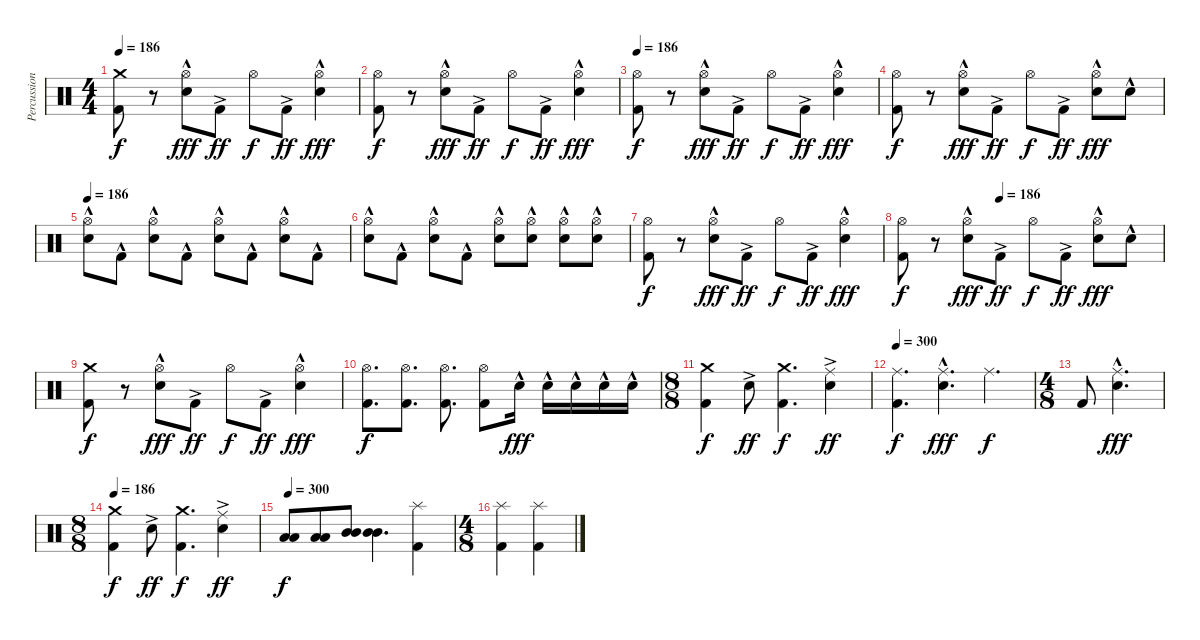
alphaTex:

\track ("Percussion" "Percussion") {instrument percussion}
\staff {score}
\articulation defaults
\ts (4 4)
\tempo 186
\clef neutral
\ks c
("Kick (hit) 2" "Crash medium (hit)").8{dy f} r.8 ("Electric Snare (hit)"{hac} "Hi-Hat (open)").8{dy fff} "Kick (hit) 2"{ac}.8{dy ff} "Hi-Hat (open)".8{dy f} "Kick (hit) 2"{ac}.8{dy ff} ("Electric Snare (hit)"{hac} "Hi-Hat (open)").4{dy fff} |
("Kick (hit) 2" "Hi-Hat (open)").8{dy f} r.8 ("Electric Snare (hit)"{hac} "Hi-Hat (open)").8{dy fff} "Kick (hit) 2"{ac}.8{dy ff} "Hi-Hat (open)".8{dy f} "Kick (hit) 2"{ac}.8{dy ff} ("Electric Snare (hit)"{hac} "Hi-Hat (open)").4{dy fff} |
\tempo 186
("Kick (hit) 2" "Hi-Hat (open)").8{dy f} r.8 ("Electric Snare (hit)"{hac} "Hi-Hat (open)").8{dy fff} "Kick (hit) 2"{ac}.8{dy ff} "Hi-Hat (open)".8{dy f} "Kick (hit) 2"{ac}.8{dy ff} ("Electric Snare (hit)"{hac} "Hi-Hat (open)").4{dy fff} |
("Kick (hit) 2" "Hi-Hat (open)").8{dy f} r.8 ("Electric Snare (hit)"{hac} "Hi-Hat (open)").8{dy fff} "Kick (hit) 2"{ac}.8{dy ff} "Hi-Hat (open)".8{dy f} "Kick (hit) 2"{ac}.8{dy ff} ("Electric Snare (hit)"{hac} "Hi-Hat (open)").8{dy fff} "Electric Snare (hit)"{hac}.8 |
\tempo 186
("Hi-Hat (open)"{hac} "Electric Snare (hit)"{hac}).8 "Kick (hit) 2"{hac}.8 ("Hi-Hat (open)"{hac} "Electric Snare (hit)"{hac}).8 "Kick (hit) 2"{hac}.8 ("Hi-Hat (open)"{hac} "Electric Snare (hit)"{hac}).8 "Kick (hit) 2"{hac}.8 ("Hi-Hat (open)"{hac} "Electric Snare (hit)"{hac}).8 "Kick (hit) 2"{hac}.8 |
("Hi-Hat (open)"{hac} "Electric Snare (hit)"{hac}).8 "Kick (hit) 2"{hac}.8 ("Hi-Hat (open)"{hac} "Electric Snare (hit)"{hac}).8 "Kick (hit) 2"{hac}.8 ("Hi-Hat (open)"{hac} "Electric Snare (hit)"{hac}).8 ("Hi-Hat (open)"{hac} "Electric Snare (hit)"{hac}).8 ("Hi-Hat (open)"{hac} "Electric Snare (hit)"{hac}).8 ("Hi-Hat (open)"{hac} "Electric Snare (hit)"{hac}).8 |
("Kick (hit) 2" "Hi-Hat (open)").8{dy f} r.8 ("Electric Snare (hit)"{hac} "Hi-Hat (open)").8{dy fff} "Kick (hit) 2"{ac}.8{dy ff} "Hi-Hat (open)".8{dy f} "Kick (hit) 2"{ac}.8{dy ff} ("Electric Snare (hit)"{hac} "Hi-Hat (open)").4{dy fff} |
\tempo (186 0.375)
("Kick (hit) 2" "Hi-Hat (open)").8{dy f} r.8 ("Electric Snare (hit)"{hac} "Hi-Hat (open)").8{dy fff} "Kick (hit) 2"{ac}.8{dy ff} "Hi-Hat (open)".8{dy f} "Kick (hit) 2"{ac}.8{dy ff} ("Electric Snare (hit)"{hac} "Hi-Hat (open)").8{dy fff} "Electric Snare (hit)"{hac}.8 |
("Kick (hit) 2" "Crash medium (hit)").8{dy f} r.8 ("Electric Snare (hit)"{hac} "Hi-Hat (open)").8{dy fff} "Kick (hit) 2"{ac}.8{dy ff} "Hi-Hat (open)".8{dy f} "Kick (hit) 2"{ac}.8{dy ff} ("Electric Snare (hit)"{hac} "Hi-Hat (open)").4{dy fff} |
("Hi-Hat (open)" "Kick (hit) 2").8{d dy f} ("Hi-Hat (open)" "Kick (hit) 2").8{d} ("Hi-Hat (open)" "Kick (hit) 2").8{d} ("Hi-Hat (open)" "Kick (hit) 2").8 "Electric Snare (hit)"{hac}.16{dy fff} "Electric Snare (hit)"{hac}.16 "Electric Snare (hit)"{hac}.16 "Electric Snare (hit)"{hac}.16 "Electric Snare (hit)"{hac}.16 |
\ts (8 8)
("Kick (hit) 2" "Crash medium (hit)").4{dy f} "Electric Snare (hit)"{ac}.8{dy ff} ("Kick (hit) 2" "Crash medium (hit)").4{d dy f} ("Electric Snare (hit)"{ac} "Ride (middle)").4{dy ff} |
\tempo 300
("Kick (hit) 2" "Ride (middle)").4{d dy f} ("Electric Snare (hit)"{hac} "Ride (middle)").4{d dy fff} "Ride (middle)".4{d dy f} |
\ts (4 8)
"Kick (hit) 2".8 ("Electric Snare (hit)"{hac} "Ride (middle)").4{d dy fff} |
\ts (8 8)
\tempo 186
("Kick (hit) 2" "Crash medium (hit)").4{dy f} "Electric Snare (hit)"{ac}.8{dy ff} ("Kick (hit) 2" "Crash medium (hit)").4{d dy f} ("Electric Snare (hit)"{ac} "Ride (middle)").4{dy ff} |
\tempo 300
("Low Tom (hit)" "Low Tom (hit)").8{dy f} ("Low Tom (hit)" "Low Tom (hit)").8 ("Mid Tom (hit)" "Mid Tom (hit)").8 ("Mid Tom (hit)" "Mid Tom (hit)").4{d} ("Kick (hit) 2" "Splash (hit)").4 |
\ts (4 8)
("Splash (hit)" "Kick (hit) 2").4 ("Splash (hit)" "Kick (hit) 2").4
